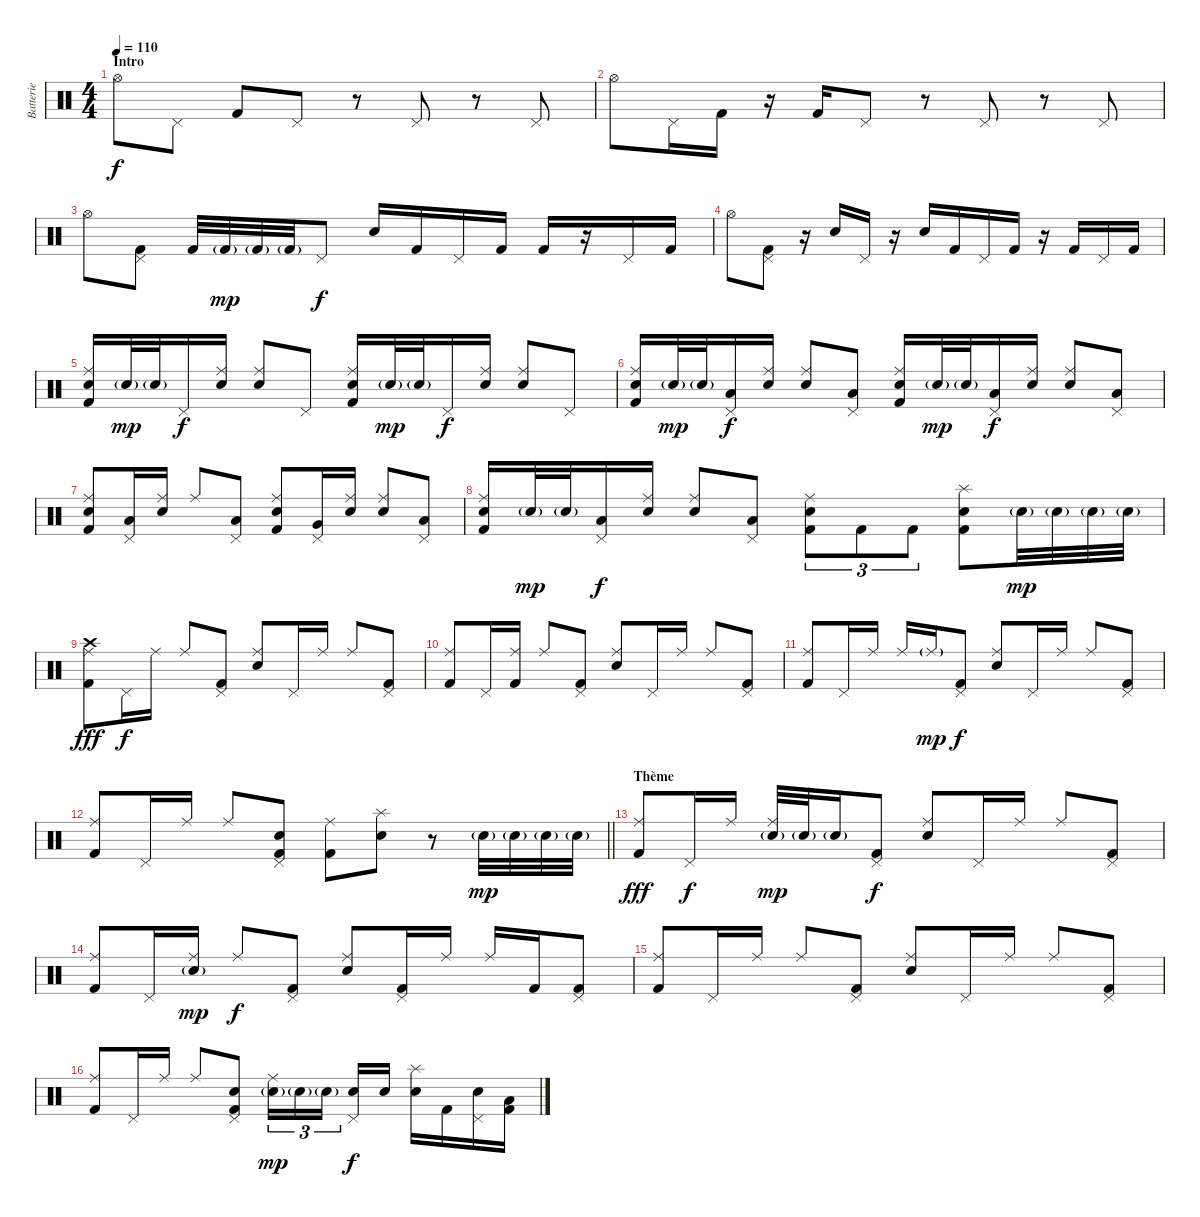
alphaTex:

\track ("Batterie" "Batterie") {instrument percussion}
\staff {score}
\articulation defaults
\ts (4 4)
\section ("" "Intro")
\tempo 110
\clef neutral
\ks c "Hi-Hat (open)".8{dy f} "Pedal Hi-Hat (hit)".8 "Kick (hit) 2".8 "Pedal Hi-Hat (hit)".8
r.8 "Pedal Hi-Hat (hit)".8 r.8 "Pedal Hi-Hat (hit)".8 |
"Hi-Hat (open)".8 "Pedal Hi-Hat (hit)".16 "Kick (hit) 2".16 r.16 "Kick (hit) 2".16 "Pedal Hi-Hat (hit)".8 r.8 "Pedal Hi-Hat (hit)".8 r.8 "Pedal Hi-Hat (hit)".8 |
"Hi-Hat (open)".8 ("Pedal Hi-Hat (hit)" "Kick (hit) 2").8 "Kick (hit) 2".32 "Kick (hit) 2"{g}.32{dy mp} "Kick (hit) 2"{g}.32 "Kick (hit) 2"{g}.32 "Pedal Hi-Hat (hit)".8{dy f} "Snare (hit) 2".16 "Kick (hit) 2".16 "Pedal Hi-Hat (hit)".16 "Kick (hit) 2".16 "Kick (hit) 2".16 r.16 "Pedal Hi-Hat (hit)".16 "Kick (hit) 2".16 |
"Hi-Hat (open)".8 ("Pedal Hi-Hat (hit)" "Kick (hit) 2").8 r.16 "Snare (hit) 2".16 "Pedal Hi-Hat (hit)".16 r.16 "Snare (hit) 2".16 "Kick (hit) 2".16 "Pedal Hi-Hat (hit)".16 "Kick (hit) 2".16 r.16 "Kick (hit) 2".16 "Pedal Hi-Hat (hit)".16 "Kick (hit) 2".16 |
("Ride (middle)" "Snare (hit) 2" "Kick (hit) 2").16 "Snare (hit) 2"{g}.32{dy mp} "Snare (hit) 2"{g}.32 "Pedal Hi-Hat (hit)".16{dy f} ("Ride (middle)" "Snare (hit) 2").16 ("Ride (middle)" "Snare (hit) 2").8 "Pedal Hi-Hat (hit)".8 ("Ride (middle)" "Snare (hit) 2" "Kick (hit) 2").16 "Snare (hit) 2"{g}.32{dy mp} "Snare (hit) 2"{g}.32 "Pedal Hi-Hat (hit)".16{dy f} ("Ride (middle)" "Snare (hit) 2").16 ("Ride (middle)" "Snare (hit) 2").8 "Pedal Hi-Hat (hit)".8 |
("Ride (middle)" "Snare (hit) 2" "Kick (hit) 2").16 "Snare (hit) 2"{g}.32{dy mp} "Snare (hit) 2"{g}.32 ("Pedal Hi-Hat (hit)" "Low Tom (hit)").16{dy f} ("Ride (middle)" "Snare (hit) 2").16 ("Ride (middle)" "Snare (hit) 2").8 ("Pedal Hi-Hat (hit)" "Low Tom (hit)").8 ("Ride (middle)" "Snare (hit) 2" "Kick (hit) 2").16 "Snare (hit) 2"{g}.32{dy mp} "Snare (hit) 2"{g}.32 ("Pedal Hi-Hat (hit)" "Low Tom (hit)").16{dy f} ("Ride (middle)" "Snare (hit) 2").16 ("Ride (middle)" "Snare (hit) 2").8 ("Pedal Hi-Hat (hit)" "Low Tom (hit)").8 |
("Ride (middle)" "Snare (hit) 2" "Kick (hit) 2").8 ("Pedal Hi-Hat (hit)" "Low Tom (hit)").16 ("Ride (middle)" "Snare (hit) 2").16 "Ride (middle)".8 ("Pedal Hi-Hat (hit)" "Low Tom (hit)").8 ("Ride (middle)" "Snare (hit) 2" "Kick (hit) 2").8 ("Pedal Hi-Hat (hit)" "Very Low Tom (hit)").16 ("Ride (middle)" "Snare (hit) 2").16 ("Ride (middle)" "Snare (hit) 2").8 ("Pedal Hi-Hat (hit)" "Low Tom (hit)").8 |
("Ride (middle)" "Snare (hit) 2" "Kick (hit) 2").16 "Snare (hit) 2"{g}.32{dy mp} "Snare (hit) 2"{g}.32 ("Pedal Hi-Hat (hit)" "Low Tom (hit)").16{dy f} ("Ride (middle)" "Snare (hit) 2").16 ("Ride (middle)" "Snare (hit) 2").8 ("Pedal Hi-Hat (hit)" "Low Tom (hit)").8 ("Ride (middle)" "Snare (hit) 2" "Kick (hit) 2").8{tu (3 2)} "Kick (hit) 2".8{tu (3 2)} "Kick (hit) 2".8{tu (3 2)} ("Splash (hit)" "Snare (hit) 2" "Kick (hit) 2").8 "Snare (hit) 2"{g}.32{dy mp} "Snare (hit) 2"{g}.32 "Snare (hit) 2"{g}.32 "Snare (hit) 2"{g}.32 |
("Crash high (hit)" "Ride (middle)" "Kick (hit) 2").8{dy fff} "Pedal Hi-Hat (hit)".16{dy f} "Ride (middle)".16 "Ride (middle)".8 ("Pedal Hi-Hat (hit)" "Kick (hit) 2").8 ("Ride (middle)" "Snare (hit) 2").8 "Pedal Hi-Hat (hit)".16 "Ride (middle)".16 "Ride (middle)".8 ("Pedal Hi-Hat (hit)" "Kick (hit) 2").8 |
("Ride (middle)" "Kick (hit) 2").8 "Pedal Hi-Hat (hit)".16 ("Ride (middle)" "Kick (hit) 2").16 "Ride (middle)".8 ("Pedal Hi-Hat (hit)" "Kick (hit) 2").8 ("Ride (middle)" "Snare (hit) 2").8 "Pedal Hi-Hat (hit)".16 "Ride (middle)".16 "Ride (middle)".8 ("Pedal Hi-Hat (hit)" "Kick (hit) 2").8 |
("Ride (middle)" "Kick (hit) 2").8 "Pedal Hi-Hat (hit)".16 "Ride (middle)".16 "Ride (middle)".16 "Ride (middle)"{g}.16{dy mp} ("Pedal Hi-Hat (hit)" "Kick (hit) 2").8{dy f} ("Ride (middle)" "Snare (hit) 2").8 "Pedal Hi-Hat (hit)".16 "Ride (middle)".16 "Ride (middle)".8 ("Pedal Hi-Hat (hit)" "Kick (hit) 2").8 |
\barLineRight lightlight
("Ride (middle)" "Kick (hit) 2").8 "Pedal Hi-Hat (hit)".16 "Ride (middle)".16 "Ride (middle)".8 ("Pedal Hi-Hat (hit)" "Snare (hit) 2" "Kick (hit) 2").8 ("Ride (middle)" "Kick (hit) 2").8 ("Splash (hit)" "Snare (hit) 2").8 r.8 "Snare (hit) 2"{g}.32{dy mp} "Snare (hit) 2"{g}.32 "Snare (hit) 2"{g}.32 "Snare (hit) 2"{g}.32 |
\section ("" "Thème")
("Ride (middle)" "Kick (hit) 2").8{dy fff} "Pedal Hi-Hat (hit)".16{dy f} "Ride (middle)".16 ("Ride (middle)" "Snare (hit) 2"{g}).32{dy mp} "Snare (hit) 2"{g}.32 "Snare (hit) 2"{g}.16 ("Pedal Hi-Hat (hit)" "Kick (hit) 2").8{dy f} ("Ride (middle)" "Snare (hit) 2").8 "Pedal Hi-Hat (hit)".16 "Ride (middle)".16 "Ride (middle)".8 ("Pedal Hi-Hat (hit)" "Kick (hit) 2").8 |
("Ride (middle)" "Kick (hit) 2").8 "Pedal Hi-Hat (hit)".16 ("Ride (middle)" "Snare (hit) 2"{g}).16{dy mp} "Ride (middle)".8{dy f} ("Pedal Hi-Hat (hit)" "Kick (hit) 2").8 ("Ride (middle)" "Snare (hit) 2").8 ("Pedal Hi-Hat (hit)" "Kick (hit) 2").16 "Ride (middle)".16 "Ride (middle)".16 "Kick (hit) 2".16 ("Pedal Hi-Hat (hit)" "Kick (hit) 2").8 |
("Ride (middle)" "Kick (hit) 2").8 "Pedal Hi-Hat (hit)".16 "Ride (middle)".16 "Ride (middle)".8 ("Pedal Hi-Hat (hit)" "Kick (hit) 2").8 ("Ride (middle)" "Snare (hit) 2").8 "Pedal Hi-Hat (hit)".16 "Ride (middle)".16 "Ride (middle)".8 ("Pedal Hi-Hat (hit)" "Kick (hit) 2").8 |
("Ride (middle)" "Kick (hit) 2").8 "Pedal Hi-Hat (hit)".16 "Ride (middle)".16 "Ride (middle)".8 ("Pedal Hi-Hat (hit)" "Snare (hit) 2" "Kick (hit) 2").8 ("Ride (middle)" "Snare (hit) 2"{g}).16{tu (3 2) dy mp} "Snare (hit) 2"{g}.16{tu (3 2)} "Snare (hit) 2"{g}.16{tu (3 2) beam splitsecondary} ("Pedal Hi-Hat (hit)" "Snare (hit) 2").16{dy f} "Snare (hit) 2".16 ("Splash (hit)" "Snare (hit) 2").16 "Kick (hit) 2".16 ("Pedal Hi-Hat (hit)" "Snare (hit) 2").16 ("Low Floor Tom (hit)" "Kick (hit) 2").16
